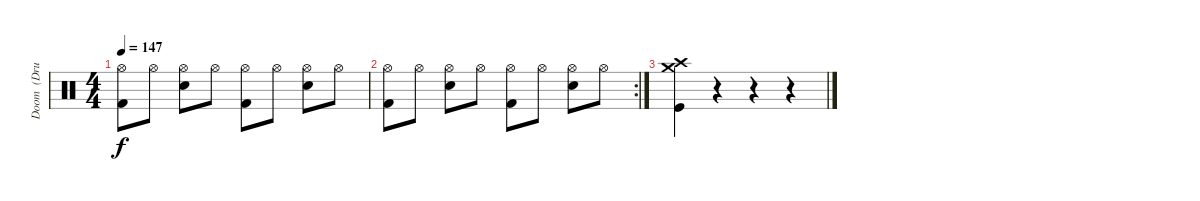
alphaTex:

\track ("Doom  (Drums)" "Doom  (Dru") {instrument percussion}
\staff {score}
\articulation defaults
\ts (4 4)
\tempo 147
\clef neutral
\ks c
("Hi-Hat (open)" "Kick (hit) 2").8{dy f} "Hi-Hat (open)".8 ("Hi-Hat (open)" "Electric Snare (hit)").8 "Hi-Hat (open)".8 ("Hi-Hat (open)" "Kick (hit) 2").8 "Hi-Hat (open)".8 ("Hi-Hat (open)" "Electric Snare (hit)").8 "Hi-Hat (open)".8 |
\rc 2
("Hi-Hat (open)" "Kick (hit) 2").8 "Hi-Hat (open)".8 ("Hi-Hat (open)" "Electric Snare (hit)").8 "Hi-Hat (open)".8 ("Hi-Hat (open)" "Kick (hit) 2").8 "Hi-Hat (open)".8 ("Hi-Hat (open)" "Electric Snare (hit)").8 "Hi-Hat (open)".8 |
("Crash medium (hit)" "Crash high (hit)" "Kick (hit)").4 r.4 r.4 r.4
